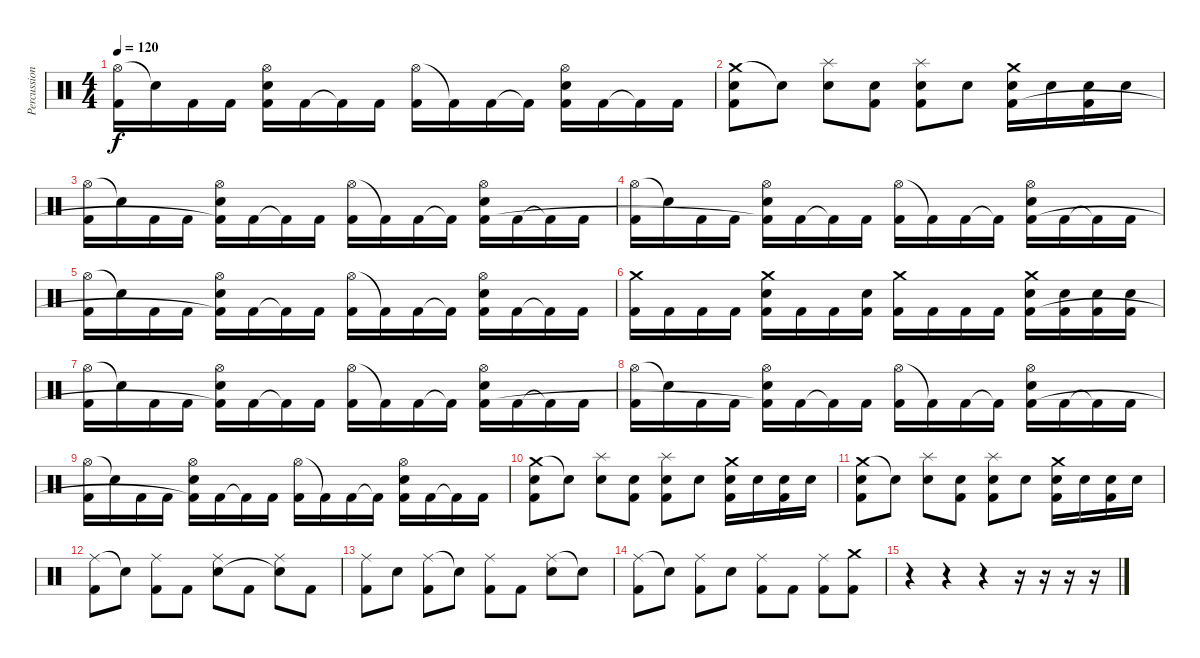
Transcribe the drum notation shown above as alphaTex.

\track ("Percussion" "Percussion") {instrument percussion}
\staff {score}
\articulation defaults
\ts (4 4)
\tempo 120
\clef neutral
\ks c
("Hi-Hat (open)" "Kick (hit) 2").16{dy f} "Snare (hit)"{t}.16 "Kick (hit) 2".16 "Kick (hit) 2".16 ("Hi-Hat (open)" "Electric Snare (hit)" "Kick (hit) 2"{t}).16 "Kick (hit) 2".16 "Kick (hit) 2"{t}.16 "Kick (hit) 2".16 ("Hi-Hat (open)" "Kick (hit) 2").16 "Kick (hit) 2"{t}.16 "Kick (hit) 2".16 "Kick (hit) 2"{t}.16 ("Hi-Hat (open)" "Electric Snare (hit)" "Kick (hit) 2").16 "Kick (hit) 2".16 "Kick (hit) 2"{t}.16 "Kick (hit) 2".16 |
("Crash medium (hit)" "Electric Snare (hit)" "Kick (hit) 2").8 "Snare (hit)"{t}.8 ("Splash (hit)" "Electric Snare (hit)").8 ("Electric Snare (hit)" "Kick (hit) 2").8 ("Splash (hit)" "Electric Snare (hit)" "Kick (hit) 2").8 "Electric Snare (hit)".8 ("Crash medium (hit)" "Electric Snare (hit)" "Kick (hit) 2").16 "Electric Snare (hit)".16 ("Electric Snare (hit)" "Kick (hit) 2").16 "Electric Snare (hit)".16 |
("Hi-Hat (open)" "Kick (hit) 2").16 "Snare (hit)"{t}.16 "Kick (hit) 2".16 "Kick (hit) 2".16 ("Hi-Hat (open)" "Electric Snare (hit)" "Kick (hit) 2"{t}).16 "Kick (hit) 2".16 "Kick (hit) 2"{t}.16 "Kick (hit) 2".16 ("Hi-Hat (open)" "Kick (hit) 2").16 "Kick (hit) 2"{t}.16 "Kick (hit) 2".16 "Kick (hit) 2"{t}.16 ("Hi-Hat (open)" "Electric Snare (hit)" "Kick (hit) 2").16 "Kick (hit) 2".16 "Kick (hit) 2"{t}.16 "Kick (hit) 2".16 |
("Hi-Hat (open)" "Kick (hit) 2").16 "Snare (hit)"{t}.16 "Kick (hit) 2".16 "Kick (hit) 2".16 ("Hi-Hat (open)" "Electric Snare (hit)" "Kick (hit) 2"{t}).16 "Kick (hit) 2".16 "Kick (hit) 2"{t}.16 "Kick (hit) 2".16 ("Hi-Hat (open)" "Kick (hit) 2").16 "Kick (hit) 2"{t}.16 "Kick (hit) 2".16 "Kick (hit) 2"{t}.16 ("Hi-Hat (open)" "Electric Snare (hit)" "Kick (hit) 2").16 "Kick (hit) 2".16 "Kick (hit) 2"{t}.16 "Kick (hit) 2".16 |
("Hi-Hat (open)" "Kick (hit) 2").16 "Snare (hit)"{t}.16 "Kick (hit) 2".16 "Kick (hit) 2".16 ("Hi-Hat (open)" "Electric Snare (hit)" "Kick (hit) 2"{t}).16 "Kick (hit) 2".16 "Kick (hit) 2"{t}.16 "Kick (hit) 2".16 ("Hi-Hat (open)" "Kick (hit) 2").16 "Kick (hit) 2"{t}.16 "Kick (hit) 2".16 "Kick (hit) 2"{t}.16 ("Hi-Hat (open)" "Electric Snare (hit)" "Kick (hit) 2").16 "Kick (hit) 2".16 "Kick (hit) 2"{t}.16 "Kick (hit) 2".16 |
("Crash medium (hit)" "Kick (hit) 2").16 "Kick (hit) 2".16 "Kick (hit) 2".16 "Kick (hit) 2".16 ("Crash medium (hit)" "Electric Snare (hit)" "Kick (hit) 2").16 "Kick (hit) 2".16 "Kick (hit) 2".16 ("Electric Snare (hit)" "Kick (hit) 2").16 ("Crash medium (hit)" "Kick (hit) 2").16 "Kick (hit) 2".16 "Kick (hit) 2".16 "Kick (hit) 2".16 ("Crash medium (hit)" "Electric Snare (hit)" "Kick (hit) 2").16 ("Electric Snare (hit)" "Kick (hit) 2").16 ("Electric Snare (hit)" "Kick (hit) 2").16 ("Electric Snare (hit)" "Kick (hit) 2").16 |
("Hi-Hat (open)" "Kick (hit) 2").16 "Snare (hit)"{t}.16 "Kick (hit) 2".16 "Kick (hit) 2".16 ("Hi-Hat (open)" "Electric Snare (hit)" "Kick (hit) 2"{t}).16 "Kick (hit) 2".16 "Kick (hit) 2"{t}.16 "Kick (hit) 2".16 ("Hi-Hat (open)" "Kick (hit) 2").16 "Kick (hit) 2"{t}.16 "Kick (hit) 2".16 "Kick (hit) 2"{t}.16 ("Hi-Hat (open)" "Electric Snare (hit)" "Kick (hit) 2").16 "Kick (hit) 2".16 "Kick (hit) 2"{t}.16 "Kick (hit) 2".16 |
("Hi-Hat (open)" "Kick (hit) 2").16 "Snare (hit)"{t}.16 "Kick (hit) 2".16 "Kick (hit) 2".16 ("Hi-Hat (open)" "Electric Snare (hit)" "Kick (hit) 2"{t}).16 "Kick (hit) 2".16 "Kick (hit) 2"{t}.16 "Kick (hit) 2".16 ("Hi-Hat (open)" "Kick (hit) 2").16 "Kick (hit) 2"{t}.16 "Kick (hit) 2".16 "Kick (hit) 2"{t}.16 ("Hi-Hat (open)" "Electric Snare (hit)" "Kick (hit) 2").16 "Kick (hit) 2".16 "Kick (hit) 2"{t}.16 "Kick (hit) 2".16 |
("Hi-Hat (open)" "Kick (hit) 2").16 "Snare (hit)"{t}.16 "Kick (hit) 2".16 "Kick (hit) 2".16 ("Hi-Hat (open)" "Electric Snare (hit)" "Kick (hit) 2"{t}).16 "Kick (hit) 2".16 "Kick (hit) 2"{t}.16 "Kick (hit) 2".16 ("Hi-Hat (open)" "Kick (hit) 2").16 "Kick (hit) 2"{t}.16 "Kick (hit) 2".16 "Kick (hit) 2"{t}.16 ("Hi-Hat (open)" "Electric Snare (hit)" "Kick (hit) 2").16 "Kick (hit) 2".16 "Kick (hit) 2"{t}.16 "Kick (hit) 2".16 |
("Crash medium (hit)" "Electric Snare (hit)" "Kick (hit) 2").8 "Snare (hit)"{t}.8 ("Splash (hit)" "Electric Snare (hit)").8 ("Electric Snare (hit)" "Kick (hit) 2").8 ("Splash (hit)" "Electric Snare (hit)" "Kick (hit) 2").8 "Electric Snare (hit)".8 ("Crash medium (hit)" "Electric Snare (hit)" "Kick (hit) 2").16 "Electric Snare (hit)".16 ("Electric Snare (hit)" "Kick (hit) 2").16 "Electric Snare (hit)".16 |
("Crash medium (hit)" "Electric Snare (hit)" "Kick (hit) 2").8 "Snare (hit)"{t}.8 ("Splash (hit)" "Electric Snare (hit)").8 ("Electric Snare (hit)" "Kick (hit) 2").8 ("Splash (hit)" "Electric Snare (hit)" "Kick (hit) 2").8 "Electric Snare (hit)".8 ("Crash medium (hit)" "Electric Snare (hit)" "Kick (hit) 2").16 "Electric Snare (hit)".16 ("Electric Snare (hit)" "Kick (hit) 2").16 "Electric Snare (hit)".16 |
("Ride (middle)" "Kick (hit) 2").8 "Snare (hit)"{t}.8 ("Ride (middle)" "Kick (hit) 2").8 "Kick (hit) 2".8 ("Ride (middle)" "Electric Snare (hit)").8 "Kick (hit) 2".8 ("Ride (middle)" "Snare (hit)"{t}).8 "Kick (hit) 2".8 |
("Ride (middle)" "Kick (hit) 2").8 "Electric Snare (hit)".8 ("Ride (middle)" "Kick (hit) 2").8 "Snare (hit)"{t}.8 ("Ride (middle)" "Kick (hit) 2").8 "Kick (hit) 2".8 ("Ride (middle)" "Electric Snare (hit)").8 "Snare (hit)"{t}.8 |
("Ride (middle)" "Kick (hit) 2").8 "Snare (hit)"{t}.8 ("Ride (middle)" "Kick (hit) 2").8 "Electric Snare (hit)".8 ("Ride (middle)" "Kick (hit) 2").8 "Kick (hit) 2".8 ("Ride (middle)" "Kick (hit) 2").8 ("Crash medium (hit)" "Kick (hit) 2").8 |
r.4 r.4 r.4 r.16 r.16 r.16 r.16
